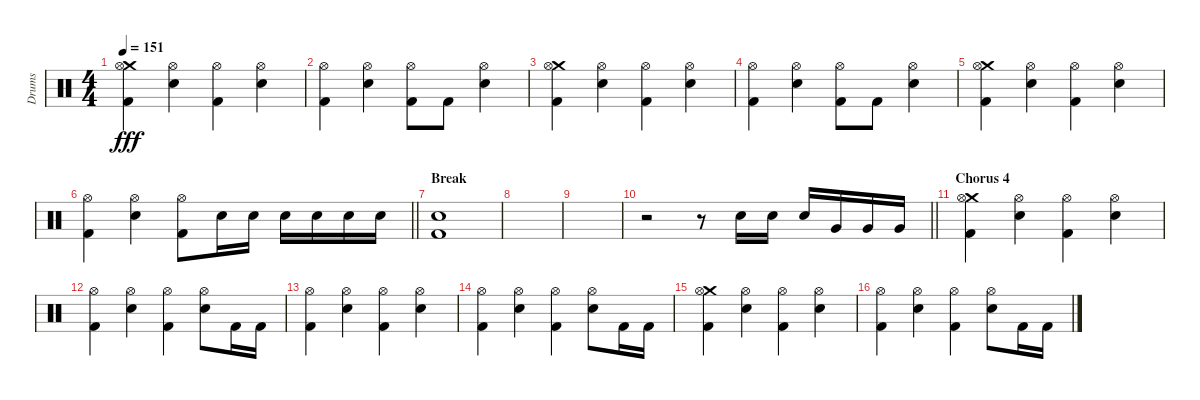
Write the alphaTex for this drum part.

\track ("Drums" "Drums") {instrument percussion}
\staff {score}
\articulation defaults
\ts (4 4)
\tempo 151
\clef neutral
\ks c
("Crash medium (hit)" "Hi-Hat (open)" "Kick (hit) 2").4{dy fff} ("Hi-Hat (open)" "Electric Snare (hit)").4 ("Hi-Hat (open)" "Kick (hit) 2").4 ("Hi-Hat (open)" "Electric Snare (hit)").4 |
("Hi-Hat (open)" "Kick (hit) 2").4 ("Hi-Hat (open)" "Electric Snare (hit)").4 ("Hi-Hat (open)" "Kick (hit) 2").8 "Kick (hit) 2".8 ("Hi-Hat (open)" "Electric Snare (hit)").4 |
("Crash medium (hit)" "Hi-Hat (open)" "Kick (hit) 2").4 ("Hi-Hat (open)" "Electric Snare (hit)").4 ("Hi-Hat (open)" "Kick (hit) 2").4 ("Hi-Hat (open)" "Electric Snare (hit)").4 |
("Hi-Hat (open)" "Kick (hit) 2").4 ("Hi-Hat (open)" "Electric Snare (hit)").4 ("Hi-Hat (open)" "Kick (hit) 2").8 "Kick (hit) 2".8 ("Hi-Hat (open)" "Electric Snare (hit)").4 |
("Crash medium (hit)" "Hi-Hat (open)" "Kick (hit) 2").4 ("Hi-Hat (open)" "Electric Snare (hit)").4 ("Hi-Hat (open)" "Kick (hit) 2").4 ("Hi-Hat (open)" "Electric Snare (hit)").4 |
\barLineRight lightlight
("Hi-Hat (open)" "Kick (hit) 2").4 ("Hi-Hat (open)" "Electric Snare (hit)").4 ("Hi-Hat (open)" "Kick (hit) 2").8 "Electric Snare (hit)".16 "Electric Snare (hit)".16 "Electric Snare (hit)".16 "Electric Snare (hit)".16 "Electric Snare (hit)".16 "Electric Snare (hit)".16 |
\section ("" "Break")
("Electric Snare (hit)" "Kick (hit) 2").1 |
|
|
\barLineRight lightlight
r.2 r.8 "Electric Snare (hit)".16 "Electric Snare (hit)".16 "Electric Snare (hit)".16 "Very Low Tom (hit)".16 "Very Low Tom (hit)".16 "Very Low Tom (hit)".16 |
\section ("" "Chorus 4")
("Crash medium (hit)" "Hi-Hat (open)" "Kick (hit) 2").4 ("Hi-Hat (open)" "Electric Snare (hit)").4 ("Hi-Hat (open)" "Kick (hit) 2").4 ("Hi-Hat (open)" "Electric Snare (hit)").4 |
("Hi-Hat (open)" "Kick (hit) 2").4 ("Hi-Hat (open)" "Electric Snare (hit)").4 ("Hi-Hat (open)" "Kick (hit) 2").4 ("Hi-Hat (open)" "Electric Snare (hit)").8 "Kick (hit) 2".16 "Kick (hit) 2".16 |
("Hi-Hat (open)" "Kick (hit) 2").4 ("Hi-Hat (open)" "Electric Snare (hit)").4 ("Hi-Hat (open)" "Kick (hit) 2").4 ("Hi-Hat (open)" "Electric Snare (hit)").4 |
("Hi-Hat (open)" "Kick (hit) 2").4 ("Hi-Hat (open)" "Electric Snare (hit)").4 ("Hi-Hat (open)" "Kick (hit) 2").4 ("Hi-Hat (open)" "Electric Snare (hit)").8 "Kick (hit) 2".16 "Kick (hit) 2".16 |
("Crash medium (hit)" "Hi-Hat (open)" "Kick (hit) 2").4 ("Hi-Hat (open)" "Electric Snare (hit)").4 ("Hi-Hat (open)" "Kick (hit) 2").4 ("Hi-Hat (open)" "Electric Snare (hit)").4 |
("Hi-Hat (open)" "Kick (hit) 2").4 ("Hi-Hat (open)" "Electric Snare (hit)").4 ("Hi-Hat (open)" "Kick (hit) 2").4 ("Hi-Hat (open)" "Electric Snare (hit)").8 "Kick (hit) 2".16 "Kick (hit) 2".16
